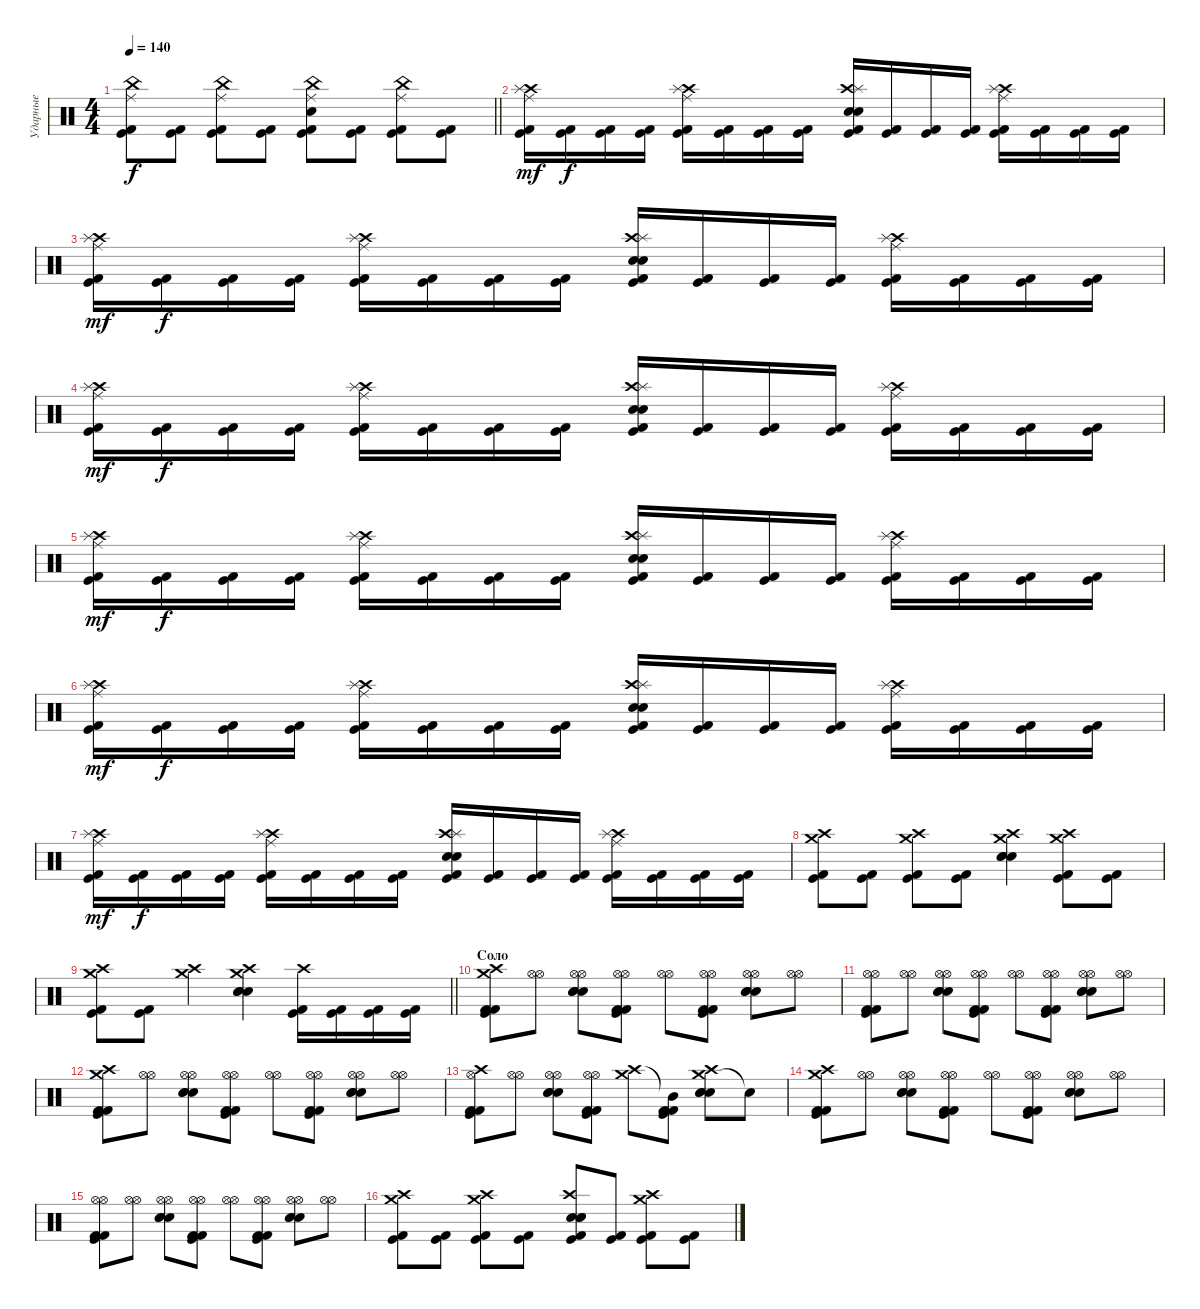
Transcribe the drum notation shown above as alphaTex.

\track ("Ударные" "Ударные") {instrument percussion}
\staff {score}
\articulation defaults
\ts (4 4)
\tempo 140
\clef neutral
\barLineRight lightlight
\ks c
("China (hit)" "Ride (middle)" "Kick (hit)" "Kick (hit) 2").8{dy f} ("Kick (hit)" "Kick (hit) 2").8 ("China (hit)" "Ride (middle)" "Kick (hit)" "Kick (hit) 2").8 ("Kick (hit)" "Kick (hit) 2").8 ("China (hit)" "Ride (middle)" "Electric Snare (hit)" "Kick (hit)" "Kick (hit) 2").8 ("Kick (hit)" "Kick (hit) 2").8 ("China (hit)" "Ride (middle)" "Kick (hit)" "Kick (hit) 2").8 ("Kick (hit)" "Kick (hit) 2").8 |
("Crash high (hit)" "Ride (middle)" "Splash (hit)" "Kick (hit) 2" "Kick (hit)").16{dy mf} ("Kick (hit) 2" "Kick (hit)").16{dy f} ("Kick (hit) 2" "Kick (hit)").16 ("Kick (hit) 2" "Kick (hit)").16 ("Crash high (hit)" "Ride (middle)" "Splash (hit)" "Kick (hit) 2" "Kick (hit)").16 ("Kick (hit) 2" "Kick (hit)").16 ("Kick (hit) 2" "Kick (hit)").16 ("Kick (hit) 2" "Kick (hit)").16 ("Electric Snare (hit)" "Crash high (hit)" "Splash (hit)" "Snare (hit) 2" "Kick (hit) 2" "Kick (hit)").16 ("Kick (hit) 2" "Kick (hit)").16 ("Kick (hit) 2" "Kick (hit)").16 ("Kick (hit) 2" "Kick (hit)").16 ("Crash high (hit)" "Ride (middle)" "Splash (hit)" "Kick (hit) 2" "Kick (hit)").16 ("Kick (hit) 2" "Kick (hit)").16 ("Kick (hit) 2" "Kick (hit)").16 ("Kick (hit) 2" "Kick (hit)").16 |
("Crash high (hit)" "Ride (middle)" "Splash (hit)" "Kick (hit) 2" "Kick (hit)").16{dy mf} ("Kick (hit) 2" "Kick (hit)").16{dy f} ("Kick (hit) 2" "Kick (hit)").16 ("Kick (hit) 2" "Kick (hit)").16 ("Crash high (hit)" "Ride (middle)" "Splash (hit)" "Kick (hit) 2" "Kick (hit)").16 ("Kick (hit) 2" "Kick (hit)").16 ("Kick (hit) 2" "Kick (hit)").16 ("Kick (hit) 2" "Kick (hit)").16 ("Electric Snare (hit)" "Crash high (hit)" "Splash (hit)" "Snare (hit) 2" "Kick (hit) 2" "Kick (hit)").16 ("Kick (hit) 2" "Kick (hit)").16 ("Kick (hit) 2" "Kick (hit)").16 ("Kick (hit) 2" "Kick (hit)").16 ("Crash high (hit)" "Ride (middle)" "Splash (hit)" "Kick (hit) 2" "Kick (hit)").16 ("Kick (hit) 2" "Kick (hit)").16 ("Kick (hit) 2" "Kick (hit)").16 ("Kick (hit) 2" "Kick (hit)").16 |
("Crash high (hit)" "Ride (middle)" "Splash (hit)" "Kick (hit) 2" "Kick (hit)").16{dy mf} ("Kick (hit) 2" "Kick (hit)").16{dy f} ("Kick (hit) 2" "Kick (hit)").16 ("Kick (hit) 2" "Kick (hit)").16 ("Crash high (hit)" "Ride (middle)" "Splash (hit)" "Kick (hit) 2" "Kick (hit)").16 ("Kick (hit) 2" "Kick (hit)").16 ("Kick (hit) 2" "Kick (hit)").16 ("Kick (hit) 2" "Kick (hit)").16 ("Electric Snare (hit)" "Crash high (hit)" "Splash (hit)" "Snare (hit) 2" "Kick (hit) 2" "Kick (hit)").16 ("Kick (hit) 2" "Kick (hit)").16 ("Kick (hit) 2" "Kick (hit)").16 ("Kick (hit) 2" "Kick (hit)").16 ("Crash high (hit)" "Ride (middle)" "Splash (hit)" "Kick (hit) 2" "Kick (hit)").16 ("Kick (hit) 2" "Kick (hit)").16 ("Kick (hit) 2" "Kick (hit)").16 ("Kick (hit) 2" "Kick (hit)").16 |
("Crash high (hit)" "Ride (middle)" "Splash (hit)" "Kick (hit) 2" "Kick (hit)").16{dy mf} ("Kick (hit) 2" "Kick (hit)").16{dy f} ("Kick (hit) 2" "Kick (hit)").16 ("Kick (hit) 2" "Kick (hit)").16 ("Crash high (hit)" "Ride (middle)" "Splash (hit)" "Kick (hit) 2" "Kick (hit)").16 ("Kick (hit) 2" "Kick (hit)").16 ("Kick (hit) 2" "Kick (hit)").16 ("Kick (hit) 2" "Kick (hit)").16 ("Electric Snare (hit)" "Crash high (hit)" "Splash (hit)" "Snare (hit) 2" "Kick (hit) 2" "Kick (hit)").16 ("Kick (hit) 2" "Kick (hit)").16 ("Kick (hit) 2" "Kick (hit)").16 ("Kick (hit) 2" "Kick (hit)").16 ("Crash high (hit)" "Ride (middle)" "Splash (hit)" "Kick (hit) 2" "Kick (hit)").16 ("Kick (hit) 2" "Kick (hit)").16 ("Kick (hit) 2" "Kick (hit)").16 ("Kick (hit) 2" "Kick (hit)").16 |
("Crash high (hit)" "Ride (middle)" "Splash (hit)" "Kick (hit) 2" "Kick (hit)").16{dy mf} ("Kick (hit) 2" "Kick (hit)").16{dy f} ("Kick (hit) 2" "Kick (hit)").16 ("Kick (hit) 2" "Kick (hit)").16 ("Crash high (hit)" "Ride (middle)" "Splash (hit)" "Kick (hit) 2" "Kick (hit)").16 ("Kick (hit) 2" "Kick (hit)").16 ("Kick (hit) 2" "Kick (hit)").16 ("Kick (hit) 2" "Kick (hit)").16 ("Electric Snare (hit)" "Crash high (hit)" "Splash (hit)" "Snare (hit) 2" "Kick (hit) 2" "Kick (hit)").16 ("Kick (hit) 2" "Kick (hit)").16 ("Kick (hit) 2" "Kick (hit)").16 ("Kick (hit) 2" "Kick (hit)").16 ("Crash high (hit)" "Ride (middle)" "Splash (hit)" "Kick (hit) 2" "Kick (hit)").16 ("Kick (hit) 2" "Kick (hit)").16 ("Kick (hit) 2" "Kick (hit)").16 ("Kick (hit) 2" "Kick (hit)").16 |
("Crash high (hit)" "Ride (middle)" "Splash (hit)" "Kick (hit) 2" "Kick (hit)").16{dy mf} ("Kick (hit) 2" "Kick (hit)").16{dy f} ("Kick (hit) 2" "Kick (hit)").16 ("Kick (hit) 2" "Kick (hit)").16 ("Crash high (hit)" "Ride (middle)" "Splash (hit)" "Kick (hit) 2" "Kick (hit)").16 ("Kick (hit) 2" "Kick (hit)").16 ("Kick (hit) 2" "Kick (hit)").16 ("Kick (hit) 2" "Kick (hit)").16 ("Electric Snare (hit)" "Crash high (hit)" "Splash (hit)" "Snare (hit) 2" "Kick (hit) 2" "Kick (hit)").16 ("Kick (hit) 2" "Kick (hit)").16 ("Kick (hit) 2" "Kick (hit)").16 ("Kick (hit) 2" "Kick (hit)").16 ("Crash high (hit)" "Ride (middle)" "Splash (hit)" "Kick (hit) 2" "Kick (hit)").16 ("Kick (hit) 2" "Kick (hit)").16 ("Kick (hit) 2" "Kick (hit)").16 ("Kick (hit) 2" "Kick (hit)").16 |
("Crash high (hit)" "Crash medium (hit)" "Kick (hit)" "Kick (hit) 2").8 ("Kick (hit)" "Kick (hit) 2").8 ("Crash high (hit)" "Crash medium (hit)" "Kick (hit)" "Kick (hit) 2").8 ("Kick (hit)" "Kick (hit) 2").8 ("Crash high (hit)" "Crash medium (hit)" "Snare (hit) 2" "Electric Snare (hit)" "Electric Snare (hit)").4 ("Crash high (hit)" "Crash medium (hit)" "Kick (hit)" "Kick (hit) 2").8 ("Kick (hit)" "Kick (hit) 2").8 |
\barLineRight lightlight
("Crash high (hit)" "Crash medium (hit)" "Kick (hit)" "Kick (hit) 2").8 ("Kick (hit)" "Kick (hit) 2").8 ("Crash high (hit)" "Crash medium (hit)").4 ("Crash high (hit)" "Crash medium (hit)" "Electric Snare (hit)" "Snare (hit) 2" "Electric Snare (hit)").4 ("Crash high (hit)" "Kick (hit)" "Kick (hit) 2").16 ("Kick (hit)" "Kick (hit) 2").16 ("Kick (hit)" "Kick (hit) 2").16 ("Kick (hit)" "Kick (hit) 2").16 |
\section ("" "Соло")
("Crash high (hit)" "Crash medium (hit)" "Kick (hit) 2" "Kick (hit)" "Kick (hit) 2").8 ("Hi-Hat (open)" "Hi-Hat (open)").8 ("Hi-Hat (open)" "Hi-Hat (open)" "Electric Snare (hit)" "Snare (hit) 2" "Electric Snare (hit)").8 ("Hi-Hat (open)" "Hi-Hat (open)" "Kick (hit) 2" "Kick (hit)" "Kick (hit) 2").8 ("Hi-Hat (open)" "Hi-Hat (open)").8 ("Hi-Hat (open)" "Hi-Hat (open)" "Kick (hit) 2" "Kick (hit)" "Kick (hit) 2").8 ("Hi-Hat (open)" "Hi-Hat (open)" "Electric Snare (hit)" "Snare (hit) 2" "Electric Snare (hit)").8 ("Hi-Hat (open)" "Hi-Hat (open)").8 |
("Hi-Hat (open)" "Hi-Hat (open)" "Kick (hit) 2" "Kick (hit)" "Kick (hit) 2").8 ("Hi-Hat (open)" "Hi-Hat (open)").8 ("Hi-Hat (open)" "Hi-Hat (open)" "Electric Snare (hit)" "Snare (hit) 2" "Electric Snare (hit)").8 ("Hi-Hat (open)" "Hi-Hat (open)" "Kick (hit) 2" "Kick (hit)" "Kick (hit) 2").8 ("Hi-Hat (open)" "Hi-Hat (open)").8 ("Hi-Hat (open)" "Hi-Hat (open)" "Kick (hit) 2" "Kick (hit)" "Kick (hit) 2").8 ("Hi-Hat (open)" "Hi-Hat (open)" "Electric Snare (hit)" "Snare (hit) 2" "Electric Snare (hit)").8 ("Hi-Hat (open)" "Hi-Hat (open)").8 |
("Crash high (hit)" "Crash medium (hit)" "Kick (hit) 2" "Kick (hit)" "Kick (hit) 2").8 ("Hi-Hat (open)" "Hi-Hat (open)").8 ("Hi-Hat (open)" "Hi-Hat (open)" "Electric Snare (hit)" "Snare (hit) 2" "Electric Snare (hit)").8 ("Hi-Hat (open)" "Hi-Hat (open)" "Kick (hit) 2" "Kick (hit)" "Kick (hit) 2").8 ("Hi-Hat (open)" "Hi-Hat (open)").8 ("Hi-Hat (open)" "Hi-Hat (open)" "Kick (hit) 2" "Kick (hit)" "Kick (hit) 2").8 ("Hi-Hat (open)" "Hi-Hat (open)" "Electric Snare (hit)" "Snare (hit) 2" "Electric Snare (hit)").8 ("Hi-Hat (open)" "Hi-Hat (open)").8 |
("Crash high (hit)" "Hi-Hat (open)" "Kick (hit) 2" "Kick (hit)" "Kick (hit) 2").8 ("Hi-Hat (open)" "Hi-Hat (open)").8 ("Hi-Hat (open)" "Hi-Hat (open)" "Electric Snare (hit)" "Snare (hit) 2" "Electric Snare (hit)").8 ("Hi-Hat (open)" "Hi-Hat (open)" "Kick (hit) 2" "Kick (hit)" "Kick (hit) 2").8 ("Crash high (hit)" "Crash medium (hit)").8 ("Mid Tom (hit)"{t} "Kick (hit) 2" "Kick (hit)" "Kick (hit) 2").8 ("Crash medium (hit)" "Crash high (hit)" "Electric Snare (hit)" "Snare (hit) 2" "Electric Snare (hit)").8 "Snare (hit)"{t}.8 |
("Crash high (hit)" "Crash medium (hit)" "Kick (hit) 2" "Kick (hit)" "Kick (hit) 2").8 ("Hi-Hat (open)" "Hi-Hat (open)").8 ("Hi-Hat (open)" "Hi-Hat (open)" "Electric Snare (hit)" "Snare (hit) 2" "Electric Snare (hit)").8 ("Hi-Hat (open)" "Hi-Hat (open)" "Kick (hit) 2" "Kick (hit)" "Kick (hit) 2").8 ("Hi-Hat (open)" "Hi-Hat (open)").8 ("Hi-Hat (open)" "Hi-Hat (open)" "Kick (hit) 2" "Kick (hit)" "Kick (hit) 2").8 ("Hi-Hat (open)" "Hi-Hat (open)" "Electric Snare (hit)" "Snare (hit) 2" "Electric Snare (hit)").8 ("Hi-Hat (open)" "Hi-Hat (open)").8 |
("Hi-Hat (open)" "Hi-Hat (open)" "Kick (hit) 2" "Kick (hit)" "Kick (hit) 2").8 ("Hi-Hat (open)" "Hi-Hat (open)").8 ("Hi-Hat (open)" "Hi-Hat (open)" "Electric Snare (hit)" "Snare (hit) 2" "Electric Snare (hit)").8 ("Hi-Hat (open)" "Hi-Hat (open)" "Kick (hit) 2" "Kick (hit)" "Kick (hit) 2").8 ("Hi-Hat (open)" "Hi-Hat (open)").8 ("Hi-Hat (open)" "Hi-Hat (open)" "Kick (hit) 2" "Kick (hit)" "Kick (hit) 2").8 ("Hi-Hat (open)" "Hi-Hat (open)" "Electric Snare (hit)" "Snare (hit) 2" "Electric Snare (hit)").8 ("Hi-Hat (open)" "Hi-Hat (open)").8 |
("Crash high (hit)" "Crash medium (hit)" "Kick (hit)" "Kick (hit) 2").8 ("Kick (hit)" "Kick (hit) 2").8 ("Crash high (hit)" "Crash medium (hit)" "Kick (hit)" "Kick (hit) 2").8 ("Kick (hit)" "Kick (hit) 2").8 ("Crash high (hit)" "Electric Snare (hit)" "Snare (hit) 2" "Electric Snare (hit)" "Kick (hit)" "Kick (hit) 2").8 ("Kick (hit)" "Kick (hit) 2").8 ("Crash high (hit)" "Crash medium (hit)" "Kick (hit)" "Kick (hit) 2").8 ("Kick (hit)" "Kick (hit) 2").8
